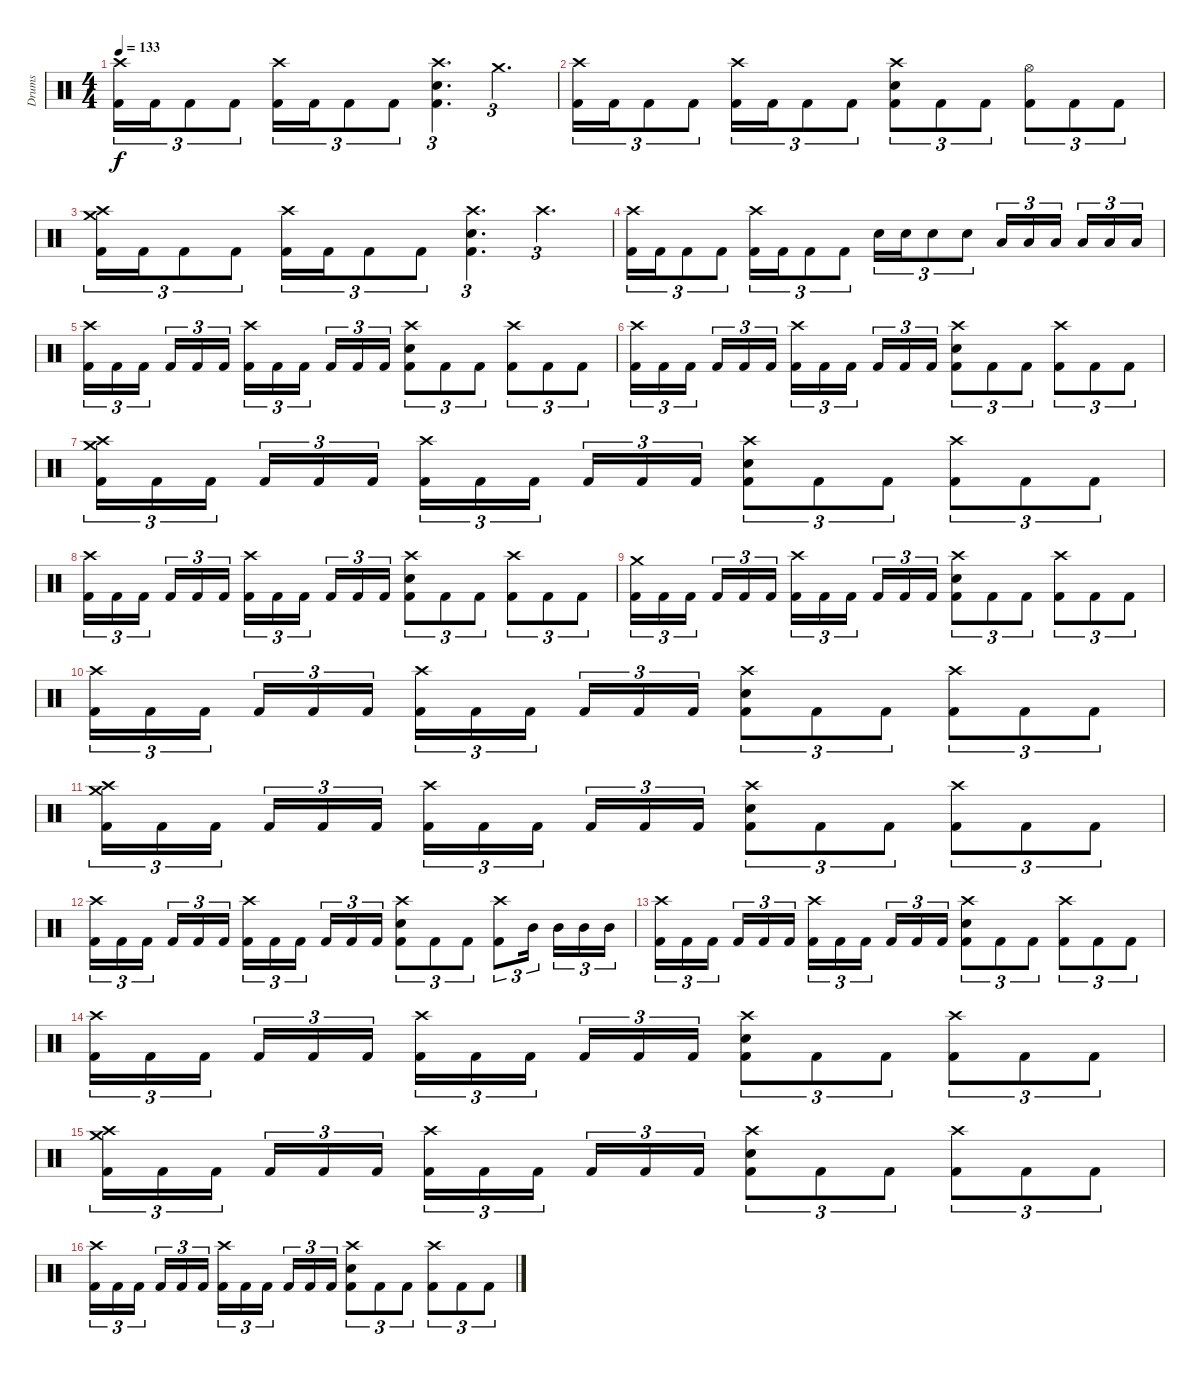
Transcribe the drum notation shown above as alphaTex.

\track ("Drums" "Drums") {instrument percussion}
\staff {score}
\articulation defaults
\ts (4 4)
\tempo 133
\clef neutral
\ks c
("Crash high (hit)" "Kick (hit) 2").16{tu (3 2) dy f} "Kick (hit) 2".16{tu (3 2)} "Kick (hit) 2".8{tu (3 2)} "Kick (hit) 2".8{tu (3 2)} ("Crash high (hit)" "Kick (hit) 2").16{tu (3 2)} "Kick (hit) 2".16{tu (3 2)} "Kick (hit) 2".8{tu (3 2)} "Kick (hit) 2".8{tu (3 2)} ("Crash high (hit)" "Snare (hit) 2" "Kick (hit) 2").4{d tu (3 2)} "Crash medium (hit)".4{d tu (3 2)} |
("Crash high (hit)" "Kick (hit) 2").16{tu (3 2)} "Kick (hit) 2".16{tu (3 2)} "Kick (hit) 2".8{tu (3 2)} "Kick (hit) 2".8{tu (3 2)} ("Crash high (hit)" "Kick (hit) 2").16{tu (3 2)} "Kick (hit) 2".16{tu (3 2)} "Kick (hit) 2".8{tu (3 2)} "Kick (hit) 2".8{tu (3 2)} ("Crash high (hit)" "Snare (hit) 2" "Kick (hit) 2").8{tu (3 2)} "Kick (hit) 2".8{tu (3 2)} "Kick (hit) 2".8{tu (3 2)} ("Hi-Hat (open)" "Kick (hit) 2").8{tu (3 2)} "Kick (hit) 2".8{tu (3 2)} "Kick (hit) 2".8{tu (3 2)} |
("Crash high (hit)" "Crash medium (hit)" "Kick (hit) 2").16{tu (3 2)} "Kick (hit) 2".16{tu (3 2)} "Kick (hit) 2".8{tu (3 2)} "Kick (hit) 2".8{tu (3 2)} ("Crash high (hit)" "Kick (hit) 2").16{tu (3 2)} "Kick (hit) 2".16{tu (3 2)} "Kick (hit) 2".8{tu (3 2)} "Kick (hit) 2".8{tu (3 2)} ("Crash high (hit)" "Snare (hit) 2" "Kick (hit) 2").4{d tu (3 2)} "Crash high (hit)".4{d tu (3 2)} |
("Crash high (hit)" "Kick (hit) 2").16{tu (3 2)} "Kick (hit) 2".16{tu (3 2)} "Kick (hit) 2".8{tu (3 2)} "Kick (hit) 2".8{tu (3 2)} ("Crash high (hit)" "Kick (hit) 2").16{tu (3 2)} "Kick (hit) 2".16{tu (3 2)} "Kick (hit) 2".8{tu (3 2)} "Kick (hit) 2".8{tu (3 2)} "Snare (hit) 2".16{tu (3 2)} "Snare (hit) 2".16{tu (3 2)} "Snare (hit) 2".8{tu (3 2)} "Snare (hit) 2".8{tu (3 2)} "Low Tom (hit)".16{tu (3 2)} "Low Tom (hit)".16{tu (3 2)} "Low Tom (hit)".16{tu (3 2) beam splitsecondary} "Low Tom (hit)".16{tu (3 2)} "Low Tom (hit)".16{tu (3 2)} "Low Tom (hit)".16{tu (3 2)} |
("Crash high (hit)" "Kick (hit) 2").16{tu (3 2)} "Kick (hit) 2".16{tu (3 2)} "Kick (hit) 2".16{tu (3 2) beam splitsecondary} "Kick (hit) 2".16{tu (3 2)} "Kick (hit) 2".16{tu (3 2)} "Kick (hit) 2".16{tu (3 2)} ("Crash high (hit)" "Kick (hit) 2").16{tu (3 2)} "Kick (hit) 2".16{tu (3 2)} "Kick (hit) 2".16{tu (3 2) beam splitsecondary} "Kick (hit) 2".16{tu (3 2)} "Kick (hit) 2".16{tu (3 2)} "Kick (hit) 2".16{tu (3 2)} ("Crash high (hit)" "Snare (hit) 2" "Kick (hit) 2").8{tu (3 2)} "Kick (hit) 2".8{tu (3 2)} "Kick (hit) 2".8{tu (3 2)} ("Crash high (hit)" "Kick (hit) 2").8{tu (3 2)} "Kick (hit) 2".8{tu (3 2)} "Kick (hit) 2".8{tu (3 2)} |
("Crash high (hit)" "Kick (hit) 2").16{tu (3 2)} "Kick (hit) 2".16{tu (3 2)} "Kick (hit) 2".16{tu (3 2) beam splitsecondary} "Kick (hit) 2".16{tu (3 2)} "Kick (hit) 2".16{tu (3 2)} "Kick (hit) 2".16{tu (3 2)} ("Crash high (hit)" "Kick (hit) 2").16{tu (3 2)} "Kick (hit) 2".16{tu (3 2)} "Kick (hit) 2".16{tu (3 2) beam splitsecondary} "Kick (hit) 2".16{tu (3 2)} "Kick (hit) 2".16{tu (3 2)} "Kick (hit) 2".16{tu (3 2)} ("Crash high (hit)" "Snare (hit) 2" "Kick (hit) 2").8{tu (3 2)} "Kick (hit) 2".8{tu (3 2)} "Kick (hit) 2".8{tu (3 2)} ("Crash high (hit)" "Kick (hit) 2").8{tu (3 2)} "Kick (hit) 2".8{tu (3 2)} "Kick (hit) 2".8{tu (3 2)} |
("Crash high (hit)" "Crash medium (hit)" "Kick (hit) 2").16{tu (3 2)} "Kick (hit) 2".16{tu (3 2)} "Kick (hit) 2".16{tu (3 2) beam splitsecondary} "Kick (hit) 2".16{tu (3 2)} "Kick (hit) 2".16{tu (3 2)} "Kick (hit) 2".16{tu (3 2)} ("Crash high (hit)" "Kick (hit) 2").16{tu (3 2)} "Kick (hit) 2".16{tu (3 2)} "Kick (hit) 2".16{tu (3 2) beam splitsecondary} "Kick (hit) 2".16{tu (3 2)} "Kick (hit) 2".16{tu (3 2)} "Kick (hit) 2".16{tu (3 2)} ("Crash high (hit)" "Snare (hit) 2" "Kick (hit) 2").8{tu (3 2)} "Kick (hit) 2".8{tu (3 2)} "Kick (hit) 2".8{tu (3 2)} ("Crash high (hit)" "Kick (hit) 2").8{tu (3 2)} "Kick (hit) 2".8{tu (3 2)} "Kick (hit) 2".8{tu (3 2)} |
("Crash high (hit)" "Kick (hit) 2").16{tu (3 2)} "Kick (hit) 2".16{tu (3 2)} "Kick (hit) 2".16{tu (3 2) beam splitsecondary} "Kick (hit) 2".16{tu (3 2)} "Kick (hit) 2".16{tu (3 2)} "Kick (hit) 2".16{tu (3 2)} ("Crash high (hit)" "Kick (hit) 2").16{tu (3 2)} "Kick (hit) 2".16{tu (3 2)} "Kick (hit) 2".16{tu (3 2) beam splitsecondary} "Kick (hit) 2".16{tu (3 2)} "Kick (hit) 2".16{tu (3 2)} "Kick (hit) 2".16{tu (3 2)} ("Crash high (hit)" "Snare (hit) 2" "Kick (hit) 2").8{tu (3 2)} "Kick (hit) 2".8{tu (3 2)} "Kick (hit) 2".8{tu (3 2)} ("Crash high (hit)" "Kick (hit) 2").8{tu (3 2)} "Kick (hit) 2".8{tu (3 2)} "Kick (hit) 2".8{tu (3 2)} |
("Crash medium (hit)" "Kick (hit) 2").16{tu (3 2)} "Kick (hit) 2".16{tu (3 2)} "Kick (hit) 2".16{tu (3 2) beam splitsecondary} "Kick (hit) 2".16{tu (3 2)} "Kick (hit) 2".16{tu (3 2)} "Kick (hit) 2".16{tu (3 2)} ("Crash high (hit)" "Kick (hit) 2").16{tu (3 2)} "Kick (hit) 2".16{tu (3 2)} "Kick (hit) 2".16{tu (3 2) beam splitsecondary} "Kick (hit) 2".16{tu (3 2)} "Kick (hit) 2".16{tu (3 2)} "Kick (hit) 2".16{tu (3 2)} ("Crash high (hit)" "Snare (hit) 2" "Kick (hit) 2").8{tu (3 2)} "Kick (hit) 2".8{tu (3 2)} "Kick (hit) 2".8{tu (3 2)} ("Crash high (hit)" "Kick (hit) 2").8{tu (3 2)} "Kick (hit) 2".8{tu (3 2)} "Kick (hit) 2".8{tu (3 2)} |
("Crash high (hit)" "Kick (hit) 2").16{tu (3 2)} "Kick (hit) 2".16{tu (3 2)} "Kick (hit) 2".16{tu (3 2) beam splitsecondary} "Kick (hit) 2".16{tu (3 2)} "Kick (hit) 2".16{tu (3 2)} "Kick (hit) 2".16{tu (3 2)} ("Crash high (hit)" "Kick (hit) 2").16{tu (3 2)} "Kick (hit) 2".16{tu (3 2)} "Kick (hit) 2".16{tu (3 2) beam splitsecondary} "Kick (hit) 2".16{tu (3 2)} "Kick (hit) 2".16{tu (3 2)} "Kick (hit) 2".16{tu (3 2)} ("Crash high (hit)" "Snare (hit) 2" "Kick (hit) 2").8{tu (3 2)} "Kick (hit) 2".8{tu (3 2)} "Kick (hit) 2".8{tu (3 2)} ("Crash high (hit)" "Kick (hit) 2").8{tu (3 2)} "Kick (hit) 2".8{tu (3 2)} "Kick (hit) 2".8{tu (3 2)} |
("Crash high (hit)" "Crash medium (hit)" "Kick (hit) 2").16{tu (3 2)} "Kick (hit) 2".16{tu (3 2)} "Kick (hit) 2".16{tu (3 2) beam splitsecondary} "Kick (hit) 2".16{tu (3 2)} "Kick (hit) 2".16{tu (3 2)} "Kick (hit) 2".16{tu (3 2)} ("Crash high (hit)" "Kick (hit) 2").16{tu (3 2)} "Kick (hit) 2".16{tu (3 2)} "Kick (hit) 2".16{tu (3 2) beam splitsecondary} "Kick (hit) 2".16{tu (3 2)} "Kick (hit) 2".16{tu (3 2)} "Kick (hit) 2".16{tu (3 2)} ("Crash high (hit)" "Snare (hit) 2" "Kick (hit) 2").8{tu (3 2)} "Kick (hit) 2".8{tu (3 2)} "Kick (hit) 2".8{tu (3 2)} ("Crash high (hit)" "Kick (hit) 2").8{tu (3 2)} "Kick (hit) 2".8{tu (3 2)} "Kick (hit) 2".8{tu (3 2)} |
("Crash high (hit)" "Kick (hit) 2").16{tu (3 2)} "Kick (hit) 2".16{tu (3 2)} "Kick (hit) 2".16{tu (3 2) beam splitsecondary} "Kick (hit) 2".16{tu (3 2)} "Kick (hit) 2".16{tu (3 2)} "Kick (hit) 2".16{tu (3 2)} ("Crash high (hit)" "Kick (hit) 2").16{tu (3 2)} "Kick (hit) 2".16{tu (3 2)} "Kick (hit) 2".16{tu (3 2) beam splitsecondary} "Kick (hit) 2".16{tu (3 2)} "Kick (hit) 2".16{tu (3 2)} "Kick (hit) 2".16{tu (3 2)} ("Crash high (hit)" "Snare (hit) 2" "Kick (hit) 2").8{tu (3 2)} "Kick (hit) 2".8{tu (3 2)} "Kick (hit) 2".8{tu (3 2)} ("Crash high (hit)" "Kick (hit) 2").8{tu (3 2)} "Mid Tom (hit)".16{tu (3 2) beam splitsecondary} "Mid Tom (hit)".16{tu (3 2)} "Mid Tom (hit)".16{tu (3 2)} "Mid Tom (hit)".16{tu (3 2)} |
("Crash high (hit)" "Kick (hit) 2").16{tu (3 2)} "Kick (hit) 2".16{tu (3 2)} "Kick (hit) 2".16{tu (3 2) beam splitsecondary} "Kick (hit) 2".16{tu (3 2)} "Kick (hit) 2".16{tu (3 2)} "Kick (hit) 2".16{tu (3 2)} ("Crash high (hit)" "Kick (hit) 2").16{tu (3 2)} "Kick (hit) 2".16{tu (3 2)} "Kick (hit) 2".16{tu (3 2) beam splitsecondary} "Kick (hit) 2".16{tu (3 2)} "Kick (hit) 2".16{tu (3 2)} "Kick (hit) 2".16{tu (3 2)} ("Crash high (hit)" "Snare (hit) 2" "Kick (hit) 2").8{tu (3 2)} "Kick (hit) 2".8{tu (3 2)} "Kick (hit) 2".8{tu (3 2)} ("Crash high (hit)" "Kick (hit) 2").8{tu (3 2)} "Kick (hit) 2".8{tu (3 2)} "Kick (hit) 2".8{tu (3 2)} |
("Crash high (hit)" "Kick (hit) 2").16{tu (3 2)} "Kick (hit) 2".16{tu (3 2)} "Kick (hit) 2".16{tu (3 2) beam splitsecondary} "Kick (hit) 2".16{tu (3 2)} "Kick (hit) 2".16{tu (3 2)} "Kick (hit) 2".16{tu (3 2)} ("Crash high (hit)" "Kick (hit) 2").16{tu (3 2)} "Kick (hit) 2".16{tu (3 2)} "Kick (hit) 2".16{tu (3 2) beam splitsecondary} "Kick (hit) 2".16{tu (3 2)} "Kick (hit) 2".16{tu (3 2)} "Kick (hit) 2".16{tu (3 2)} ("Crash high (hit)" "Snare (hit) 2" "Kick (hit) 2").8{tu (3 2)} "Kick (hit) 2".8{tu (3 2)} "Kick (hit) 2".8{tu (3 2)} ("Crash high (hit)" "Kick (hit) 2").8{tu (3 2)} "Kick (hit) 2".8{tu (3 2)} "Kick (hit) 2".8{tu (3 2)} |
("Crash high (hit)" "Crash medium (hit)" "Kick (hit) 2").16{tu (3 2)} "Kick (hit) 2".16{tu (3 2)} "Kick (hit) 2".16{tu (3 2) beam splitsecondary} "Kick (hit) 2".16{tu (3 2)} "Kick (hit) 2".16{tu (3 2)} "Kick (hit) 2".16{tu (3 2)} ("Crash high (hit)" "Kick (hit) 2").16{tu (3 2)} "Kick (hit) 2".16{tu (3 2)} "Kick (hit) 2".16{tu (3 2) beam splitsecondary} "Kick (hit) 2".16{tu (3 2)} "Kick (hit) 2".16{tu (3 2)} "Kick (hit) 2".16{tu (3 2)} ("Crash high (hit)" "Snare (hit) 2" "Kick (hit) 2").8{tu (3 2)} "Kick (hit) 2".8{tu (3 2)} "Kick (hit) 2".8{tu (3 2)} ("Crash high (hit)" "Kick (hit) 2").8{tu (3 2)} "Kick (hit) 2".8{tu (3 2)} "Kick (hit) 2".8{tu (3 2)} |
("Crash high (hit)" "Kick (hit) 2").16{tu (3 2)} "Kick (hit) 2".16{tu (3 2)} "Kick (hit) 2".16{tu (3 2) beam splitsecondary} "Kick (hit) 2".16{tu (3 2)} "Kick (hit) 2".16{tu (3 2)} "Kick (hit) 2".16{tu (3 2)} ("Crash high (hit)" "Kick (hit) 2").16{tu (3 2)} "Kick (hit) 2".16{tu (3 2)} "Kick (hit) 2".16{tu (3 2) beam splitsecondary} "Kick (hit) 2".16{tu (3 2)} "Kick (hit) 2".16{tu (3 2)} "Kick (hit) 2".16{tu (3 2)} ("Crash high (hit)" "Snare (hit) 2" "Kick (hit) 2").8{tu (3 2)} "Kick (hit) 2".8{tu (3 2)} "Kick (hit) 2".8{tu (3 2)} ("Crash high (hit)" "Kick (hit) 2").8{tu (3 2)} "Kick (hit) 2".8{tu (3 2)} "Kick (hit) 2".8{tu (3 2)}
